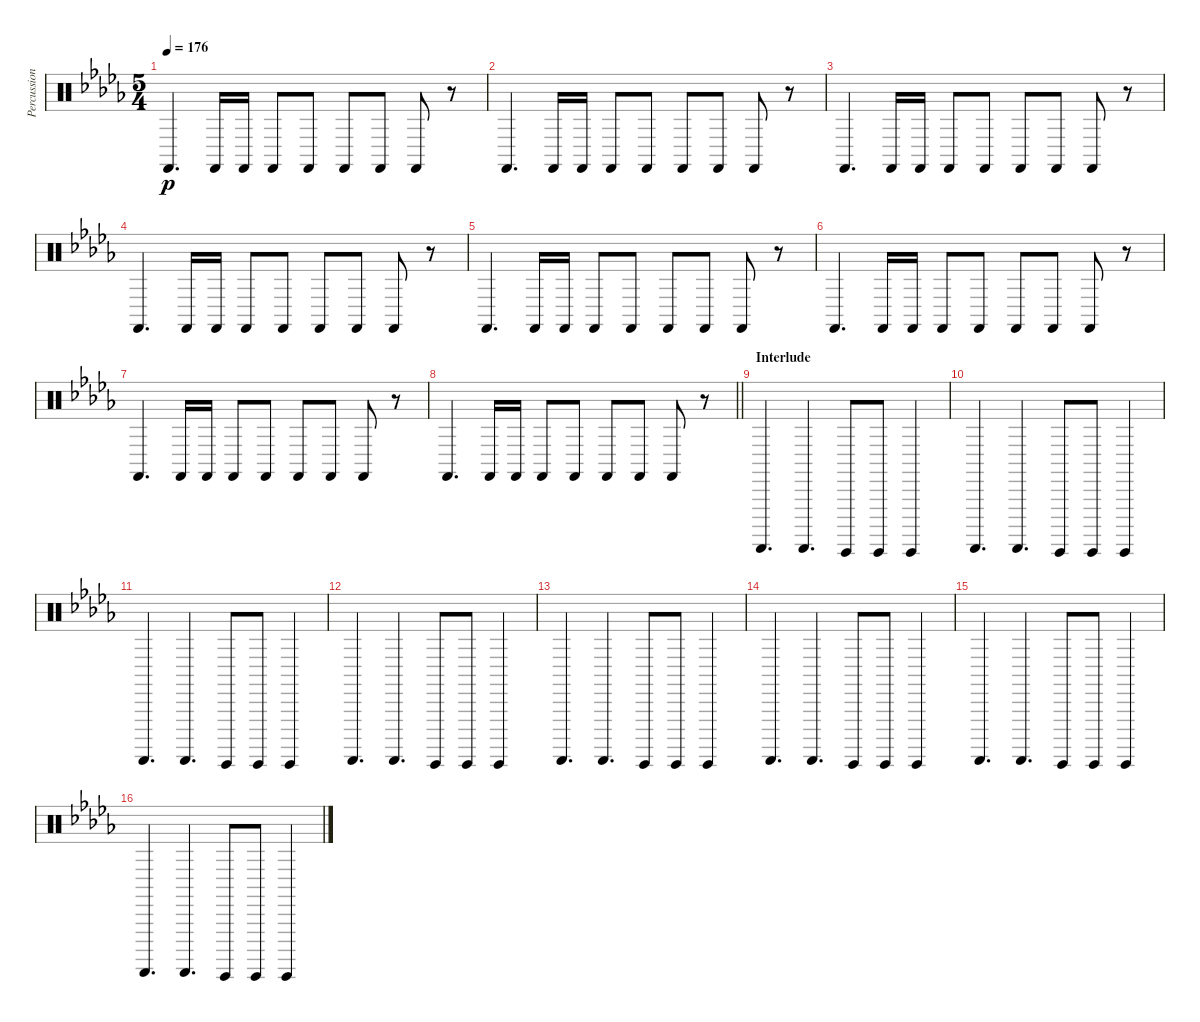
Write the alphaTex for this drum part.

\track ("Percussion" "Percussion") {instrument percussion}
\staff {score}
\articulation defaults
\ts (5 4)
\tempo 176
\clef neutral
\ks db "Castanets (hit)".4{d dy p} "Castanets (hit)".16 "Castanets (hit)".16 "Castanets (hit)".8 "Castanets (hit)".8 "Castanets (hit)".8 "Castanets (hit)".8 "Castanets (hit)".8
r.8 |
"Castanets (hit)".4{d} "Castanets (hit)".16 "Castanets (hit)".16 "Castanets (hit)".8 "Castanets (hit)".8 "Castanets (hit)".8 "Castanets (hit)".8 "Castanets (hit)".8 r.8 |
"Castanets (hit)".4{d} "Castanets (hit)".16 "Castanets (hit)".16 "Castanets (hit)".8 "Castanets (hit)".8 "Castanets (hit)".8 "Castanets (hit)".8 "Castanets (hit)".8 r.8 |
"Castanets (hit)".4{d} "Castanets (hit)".16 "Castanets (hit)".16 "Castanets (hit)".8 "Castanets (hit)".8 "Castanets (hit)".8 "Castanets (hit)".8 "Castanets (hit)".8 r.8 |
"Castanets (hit)".4{d} "Castanets (hit)".16 "Castanets (hit)".16 "Castanets (hit)".8 "Castanets (hit)".8 "Castanets (hit)".8 "Castanets (hit)".8 "Castanets (hit)".8 r.8 |
"Castanets (hit)".4{d} "Castanets (hit)".16 "Castanets (hit)".16 "Castanets (hit)".8 "Castanets (hit)".8 "Castanets (hit)".8 "Castanets (hit)".8 "Castanets (hit)".8 r.8 |
"Castanets (hit)".4{d} "Castanets (hit)".16 "Castanets (hit)".16 "Castanets (hit)".8 "Castanets (hit)".8 "Castanets (hit)".8 "Castanets (hit)".8 "Castanets (hit)".8 r.8 |
\barLineRight lightlight "Castanets (hit)".4{d} "Castanets (hit)".16 "Castanets (hit)".16 "Castanets (hit)".8 "Castanets (hit)".8 "Castanets (hit)".8 "Castanets (hit)".8 "Castanets (hit)".8
r.8 |
\section ("" "Interlude")
"Guiro (scrap-return)".4{d} "Guiro (scrap-return)".4{d} "Guiro (hit)".8 "Guiro (hit)".8 "Guiro (hit)".4 |
"Guiro (scrap-return)".4{d} "Guiro (scrap-return)".4{d} "Guiro (hit)".8 "Guiro (hit)".8 "Guiro (hit)".4 |
"Guiro (scrap-return)".4{d} "Guiro (scrap-return)".4{d} "Guiro (hit)".8 "Guiro (hit)".8 "Guiro (hit)".4 |
"Guiro (scrap-return)".4{d} "Guiro (scrap-return)".4{d} "Guiro (hit)".8 "Guiro (hit)".8 "Guiro (hit)".4 |
"Guiro (scrap-return)".4{d} "Guiro (scrap-return)".4{d} "Guiro (hit)".8 "Guiro (hit)".8 "Guiro (hit)".4 |
"Guiro (scrap-return)".4{d} "Guiro (scrap-return)".4{d} "Guiro (hit)".8 "Guiro (hit)".8 "Guiro (hit)".4 |
"Guiro (scrap-return)".4{d} "Guiro (scrap-return)".4{d} "Guiro (hit)".8 "Guiro (hit)".8 "Guiro (hit)".4 |
"Guiro (scrap-return)".4{d} "Guiro (scrap-return)".4{d} "Guiro (hit)".8 "Guiro (hit)".8 "Guiro (hit)".4
